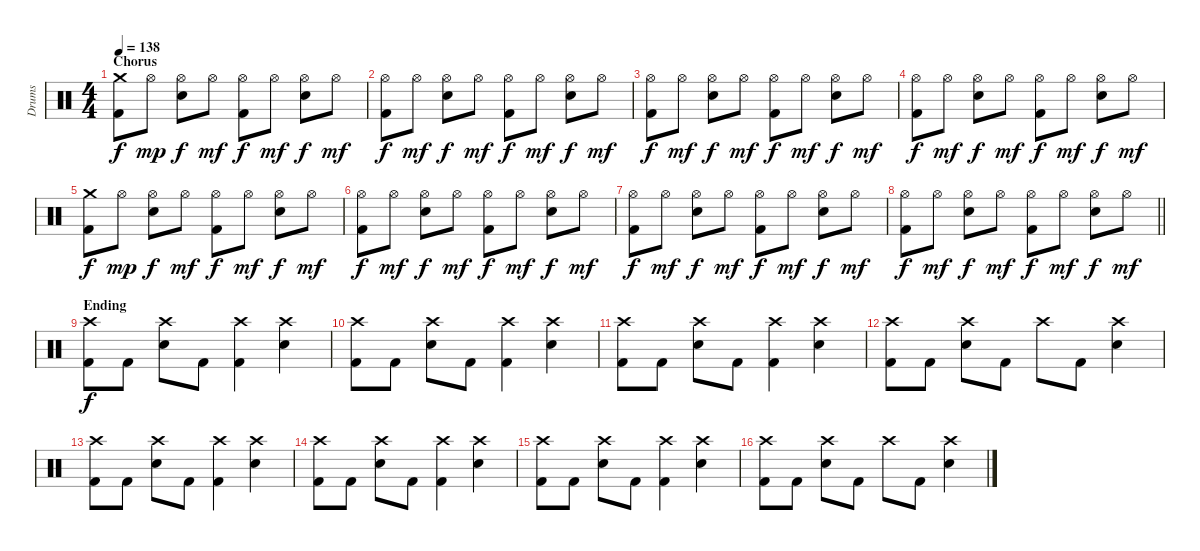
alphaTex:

\track ("Drums" "Drums") {instrument percussion}
\staff {score}
\articulation defaults
\ts (4 4)
\section ("" "Chorus")
\tempo 138
\clef neutral
\ks c
("Crash medium (hit)" "Kick (hit) 2").8{dy f} "Hi-Hat (open)".8{dy mp} ("Hi-Hat (open)" "Electric Snare (hit)").8{dy f} "Hi-Hat (open)".8{dy mf} ("Hi-Hat (open)" "Kick (hit) 2").8{dy f} "Hi-Hat (open)".8{dy mf} ("Hi-Hat (open)" "Electric Snare (hit)").8{dy f} "Hi-Hat (open)".8{dy mf} |
("Hi-Hat (open)" "Kick (hit) 2").8{dy f} "Hi-Hat (open)".8{dy mf} ("Hi-Hat (open)" "Electric Snare (hit)").8{dy f} "Hi-Hat (open)".8{dy mf} ("Hi-Hat (open)" "Kick (hit) 2").8{dy f} "Hi-Hat (open)".8{dy mf} ("Hi-Hat (open)" "Electric Snare (hit)").8{dy f} "Hi-Hat (open)".8{dy mf} |
("Hi-Hat (open)" "Kick (hit) 2").8{dy f} "Hi-Hat (open)".8{dy mf} ("Hi-Hat (open)" "Electric Snare (hit)").8{dy f} "Hi-Hat (open)".8{dy mf} ("Hi-Hat (open)" "Kick (hit) 2").8{dy f} "Hi-Hat (open)".8{dy mf} ("Hi-Hat (open)" "Electric Snare (hit)").8{dy f} "Hi-Hat (open)".8{dy mf} |
("Hi-Hat (open)" "Kick (hit) 2").8{dy f} "Hi-Hat (open)".8{dy mf} ("Hi-Hat (open)" "Electric Snare (hit)").8{dy f} "Hi-Hat (open)".8{dy mf} ("Hi-Hat (open)" "Kick (hit) 2").8{dy f} "Hi-Hat (open)".8{dy mf} ("Hi-Hat (open)" "Electric Snare (hit)").8{dy f} "Hi-Hat (open)".8{dy mf} |
("Crash medium (hit)" "Kick (hit) 2").8{dy f} "Hi-Hat (open)".8{dy mp} ("Hi-Hat (open)" "Electric Snare (hit)").8{dy f} "Hi-Hat (open)".8{dy mf} ("Hi-Hat (open)" "Kick (hit) 2").8{dy f} "Hi-Hat (open)".8{dy mf} ("Hi-Hat (open)" "Electric Snare (hit)").8{dy f} "Hi-Hat (open)".8{dy mf} |
("Hi-Hat (open)" "Kick (hit) 2").8{dy f} "Hi-Hat (open)".8{dy mf} ("Hi-Hat (open)" "Electric Snare (hit)").8{dy f} "Hi-Hat (open)".8{dy mf} ("Hi-Hat (open)" "Kick (hit) 2").8{dy f} "Hi-Hat (open)".8{dy mf} ("Hi-Hat (open)" "Electric Snare (hit)").8{dy f} "Hi-Hat (open)".8{dy mf} |
("Hi-Hat (open)" "Kick (hit) 2").8{dy f} "Hi-Hat (open)".8{dy mf} ("Hi-Hat (open)" "Electric Snare (hit)").8{dy f} "Hi-Hat (open)".8{dy mf} ("Hi-Hat (open)" "Kick (hit) 2").8{dy f} "Hi-Hat (open)".8{dy mf} ("Hi-Hat (open)" "Electric Snare (hit)").8{dy f} "Hi-Hat (open)".8{dy mf} |
\barLineRight lightlight
("Hi-Hat (open)" "Kick (hit) 2").8{dy f} "Hi-Hat (open)".8{dy mf} ("Hi-Hat (open)" "Electric Snare (hit)").8{dy f} "Hi-Hat (open)".8{dy mf} ("Hi-Hat (open)" "Kick (hit) 2").8{dy f} "Hi-Hat (open)".8{dy mf} ("Hi-Hat (open)" "Electric Snare (hit)").8{dy f} "Hi-Hat (open)".8{dy mf} |
\section ("" "Ending")
("Crash high (hit)" "Kick (hit) 2").8{dy f} "Kick (hit) 2".8 ("Crash high (hit)" "Electric Snare (hit)").8 "Kick (hit) 2".8 ("Crash high (hit)" "Kick (hit) 2").4 ("Crash high (hit)" "Electric Snare (hit)").4 |
("Crash high (hit)" "Kick (hit) 2").8 "Kick (hit) 2".8 ("Crash high (hit)" "Electric Snare (hit)").8 "Kick (hit) 2".8 ("Crash high (hit)" "Kick (hit) 2").4 ("Crash high (hit)" "Electric Snare (hit)").4 |
("Crash high (hit)" "Kick (hit) 2").8 "Kick (hit) 2".8 ("Crash high (hit)" "Electric Snare (hit)").8 "Kick (hit) 2".8 ("Crash high (hit)" "Kick (hit) 2").4 ("Crash high (hit)" "Electric Snare (hit)").4 |
("Crash high (hit)" "Kick (hit) 2").8 "Kick (hit) 2".8 ("Crash high (hit)" "Electric Snare (hit)").8 "Kick (hit) 2".8 "Crash high (hit)".8 "Kick (hit) 2".8 ("Crash high (hit)" "Electric Snare (hit)").4 |
("Crash high (hit)" "Kick (hit) 2").8 "Kick (hit) 2".8 ("Crash high (hit)" "Electric Snare (hit)").8 "Kick (hit) 2".8 ("Crash high (hit)" "Kick (hit) 2").4 ("Crash high (hit)" "Electric Snare (hit)").4 |
("Crash high (hit)" "Kick (hit) 2").8 "Kick (hit) 2".8 ("Crash high (hit)" "Electric Snare (hit)").8 "Kick (hit) 2".8 ("Crash high (hit)" "Kick (hit) 2").4 ("Crash high (hit)" "Electric Snare (hit)").4 |
("Crash high (hit)" "Kick (hit) 2").8 "Kick (hit) 2".8 ("Crash high (hit)" "Electric Snare (hit)").8 "Kick (hit) 2".8 ("Crash high (hit)" "Kick (hit) 2").4 ("Crash high (hit)" "Electric Snare (hit)").4 |
("Crash high (hit)" "Kick (hit) 2").8 "Kick (hit) 2".8 ("Crash high (hit)" "Electric Snare (hit)").8 "Kick (hit) 2".8 "Crash high (hit)".8 "Kick (hit) 2".8 ("Crash high (hit)" "Electric Snare (hit)").4
